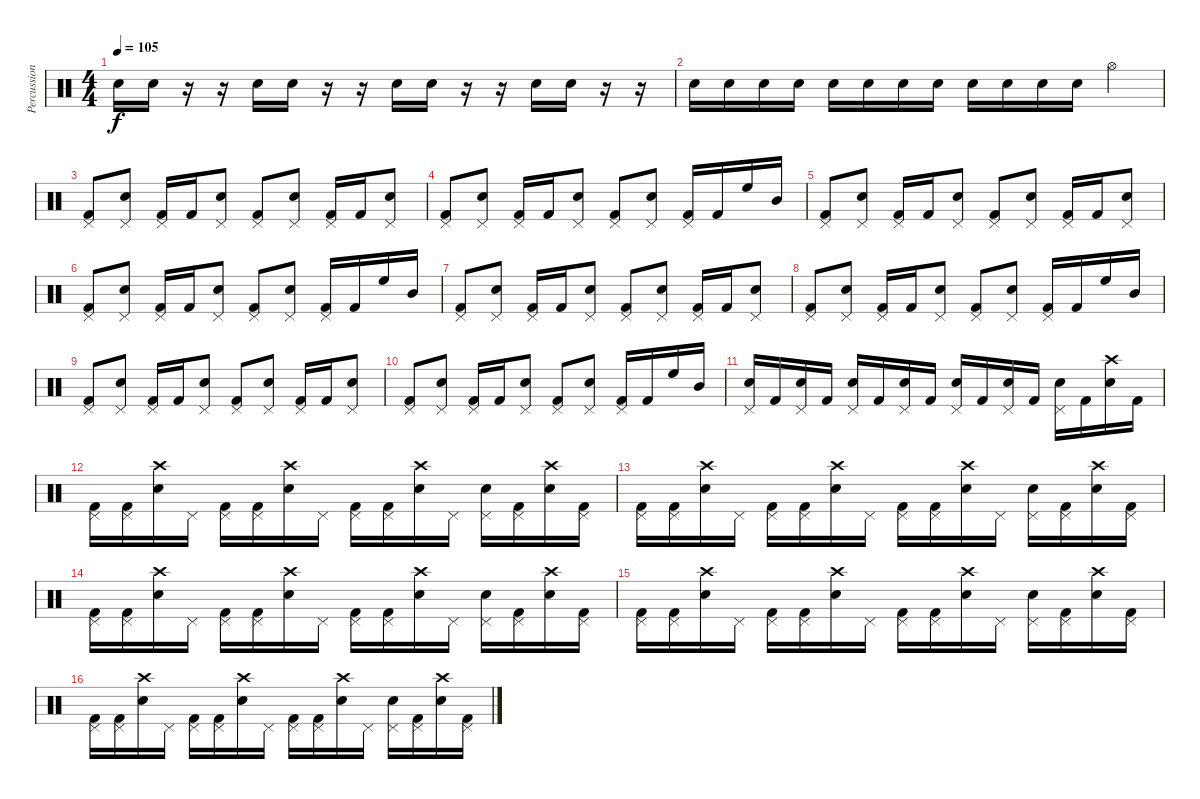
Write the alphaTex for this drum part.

\track ("Percussion" "Percussion") {instrument percussion}
\staff {score}
\articulation defaults
\ts (4 4)
\tempo 105
\clef neutral
\ks c "Electric Snare (hit)".16{dy f} "Electric Snare (hit)".16
r.16 r.16 "Electric Snare (hit)".16 "Electric Snare (hit)".16 r.16 r.16 "Electric Snare (hit)".16 "Electric Snare (hit)".16 r.16 r.16 "Electric Snare (hit)".16 "Electric Snare (hit)".16 r.16 r.16 |
"Electric Snare (hit)".16 "Electric Snare (hit)".16 "Electric Snare (hit)".16 "Electric Snare (hit)".16 "Electric Snare (hit)".16 "Electric Snare (hit)".16 "Electric Snare (hit)".16 "Electric Snare (hit)".16 "Electric Snare (hit)".16 "Electric Snare (hit)".16 "Electric Snare (hit)".16 "Electric Snare (hit)".16 "Hi-Hat (open)".4 |
("Pedal Hi-Hat (hit)" "Kick (hit) 2").8 ("Pedal Hi-Hat (hit)" "Electric Snare (hit)").8 ("Pedal Hi-Hat (hit)" "Kick (hit) 2").16 "Kick (hit) 2".16 ("Pedal Hi-Hat (hit)" "Electric Snare (hit)").8 ("Pedal Hi-Hat (hit)" "Kick (hit) 2").8 ("Pedal Hi-Hat (hit)" "Electric Snare (hit)").8 ("Pedal Hi-Hat (hit)" "Kick (hit) 2").16 "Kick (hit) 2".16 ("Pedal Hi-Hat (hit)" "Electric Snare (hit)").8 |
("Pedal Hi-Hat (hit)" "Kick (hit) 2").8 ("Pedal Hi-Hat (hit)" "Electric Snare (hit)").8 ("Pedal Hi-Hat (hit)" "Kick (hit) 2").16 "Kick (hit) 2".16 ("Pedal Hi-Hat (hit)" "Electric Snare (hit)").8 ("Pedal Hi-Hat (hit)" "Kick (hit) 2").8 ("Pedal Hi-Hat (hit)" "Electric Snare (hit)").8 ("Pedal Hi-Hat (hit)" "Kick (hit) 2").16 "Kick (hit) 2".16 "High Floor Tom (hit)".16 "Mid Tom (hit)".16 |
("Pedal Hi-Hat (hit)" "Kick (hit) 2").8 ("Pedal Hi-Hat (hit)" "Electric Snare (hit)").8 ("Pedal Hi-Hat (hit)" "Kick (hit) 2").16 "Kick (hit) 2".16 ("Pedal Hi-Hat (hit)" "Electric Snare (hit)").8 ("Pedal Hi-Hat (hit)" "Kick (hit) 2").8 ("Pedal Hi-Hat (hit)" "Electric Snare (hit)").8 ("Pedal Hi-Hat (hit)" "Kick (hit) 2").16 "Kick (hit) 2".16 ("Pedal Hi-Hat (hit)" "Electric Snare (hit)").8 |
("Pedal Hi-Hat (hit)" "Kick (hit) 2").8 ("Pedal Hi-Hat (hit)" "Electric Snare (hit)").8 ("Pedal Hi-Hat (hit)" "Kick (hit) 2").16 "Kick (hit) 2".16 ("Pedal Hi-Hat (hit)" "Electric Snare (hit)").8 ("Pedal Hi-Hat (hit)" "Kick (hit) 2").8 ("Pedal Hi-Hat (hit)" "Electric Snare (hit)").8 ("Pedal Hi-Hat (hit)" "Kick (hit) 2").16 "Kick (hit) 2".16 "High Floor Tom (hit)".16 "Mid Tom (hit)".16 |
("Pedal Hi-Hat (hit)" "Kick (hit) 2").8 ("Pedal Hi-Hat (hit)" "Electric Snare (hit)").8 ("Pedal Hi-Hat (hit)" "Kick (hit) 2").16 "Kick (hit) 2".16 ("Pedal Hi-Hat (hit)" "Electric Snare (hit)").8 ("Pedal Hi-Hat (hit)" "Kick (hit) 2").8 ("Pedal Hi-Hat (hit)" "Electric Snare (hit)").8 ("Pedal Hi-Hat (hit)" "Kick (hit) 2").16 "Kick (hit) 2".16 ("Pedal Hi-Hat (hit)" "Electric Snare (hit)").8 |
("Pedal Hi-Hat (hit)" "Kick (hit) 2").8 ("Pedal Hi-Hat (hit)" "Electric Snare (hit)").8 ("Pedal Hi-Hat (hit)" "Kick (hit) 2").16 "Kick (hit) 2".16 ("Pedal Hi-Hat (hit)" "Electric Snare (hit)").8 ("Pedal Hi-Hat (hit)" "Kick (hit) 2").8 ("Pedal Hi-Hat (hit)" "Electric Snare (hit)").8 ("Pedal Hi-Hat (hit)" "Kick (hit) 2").16 "Kick (hit) 2".16 "High Floor Tom (hit)".16 "Mid Tom (hit)".16 |
("Pedal Hi-Hat (hit)" "Kick (hit) 2").8 ("Pedal Hi-Hat (hit)" "Electric Snare (hit)").8 ("Pedal Hi-Hat (hit)" "Kick (hit) 2").16 "Kick (hit) 2".16 ("Pedal Hi-Hat (hit)" "Electric Snare (hit)").8 ("Pedal Hi-Hat (hit)" "Kick (hit) 2").8 ("Pedal Hi-Hat (hit)" "Electric Snare (hit)").8 ("Pedal Hi-Hat (hit)" "Kick (hit) 2").16 "Kick (hit) 2".16 ("Pedal Hi-Hat (hit)" "Electric Snare (hit)").8 |
("Pedal Hi-Hat (hit)" "Kick (hit) 2").8 ("Pedal Hi-Hat (hit)" "Electric Snare (hit)").8 ("Pedal Hi-Hat (hit)" "Kick (hit) 2").16 "Kick (hit) 2".16 ("Pedal Hi-Hat (hit)" "Electric Snare (hit)").8 ("Pedal Hi-Hat (hit)" "Kick (hit) 2").8 ("Pedal Hi-Hat (hit)" "Electric Snare (hit)").8 ("Pedal Hi-Hat (hit)" "Kick (hit) 2").16 "Kick (hit) 2".16 "High Floor Tom (hit)".16 "Mid Tom (hit)".16 |
("Pedal Hi-Hat (hit)" "Electric Snare (hit)").16 "Kick (hit) 2".16 ("Pedal Hi-Hat (hit)" "Electric Snare (hit)").16 "Kick (hit) 2".16 ("Pedal Hi-Hat (hit)" "Electric Snare (hit)").16 "Kick (hit) 2".16 ("Pedal Hi-Hat (hit)" "Electric Snare (hit)").16 "Kick (hit) 2".16 ("Pedal Hi-Hat (hit)" "Electric Snare (hit)").16 "Kick (hit) 2".16 ("Pedal Hi-Hat (hit)" "Electric Snare (hit)").16 "Kick (hit) 2".16 ("Pedal Hi-Hat (hit)" "Electric Snare (hit)").16 "Kick (hit) 2".16 ("Crash high (hit)" "Electric Snare (hit)").16 "Kick (hit) 2".16 |
("Pedal Hi-Hat (hit)" "Kick (hit) 2").16 ("Pedal Hi-Hat (hit)" "Kick (hit) 2").16 ("Crash high (hit)" "Electric Snare (hit)").16 "Pedal Hi-Hat (hit)".16 ("Pedal Hi-Hat (hit)" "Kick (hit) 2").16 ("Pedal Hi-Hat (hit)" "Kick (hit) 2").16 ("Crash high (hit)" "Electric Snare (hit)").16 "Pedal Hi-Hat (hit)".16 ("Pedal Hi-Hat (hit)" "Kick (hit) 2").16 ("Pedal Hi-Hat (hit)" "Kick (hit) 2").16 ("Crash high (hit)" "Electric Snare (hit)").16 "Pedal Hi-Hat (hit)".16 ("Pedal Hi-Hat (hit)" "Electric Snare (hit)").16 ("Pedal Hi-Hat (hit)" "Kick (hit) 2").16 ("Crash high (hit)" "Electric Snare (hit)").16 ("Pedal Hi-Hat (hit)" "Kick (hit) 2").16 |
("Pedal Hi-Hat (hit)" "Kick (hit) 2").16 ("Pedal Hi-Hat (hit)" "Kick (hit) 2").16 ("Crash high (hit)" "Electric Snare (hit)").16 "Pedal Hi-Hat (hit)".16 ("Pedal Hi-Hat (hit)" "Kick (hit) 2").16 ("Pedal Hi-Hat (hit)" "Kick (hit) 2").16 ("Crash high (hit)" "Electric Snare (hit)").16 "Pedal Hi-Hat (hit)".16 ("Pedal Hi-Hat (hit)" "Kick (hit) 2").16 ("Pedal Hi-Hat (hit)" "Kick (hit) 2").16 ("Crash high (hit)" "Electric Snare (hit)").16 "Pedal Hi-Hat (hit)".16 ("Pedal Hi-Hat (hit)" "Electric Snare (hit)").16 ("Pedal Hi-Hat (hit)" "Kick (hit) 2").16 ("Crash high (hit)" "Electric Snare (hit)").16 ("Pedal Hi-Hat (hit)" "Kick (hit) 2").16 |
("Pedal Hi-Hat (hit)" "Kick (hit) 2").16 ("Pedal Hi-Hat (hit)" "Kick (hit) 2").16 ("Crash high (hit)" "Electric Snare (hit)").16 "Pedal Hi-Hat (hit)".16 ("Pedal Hi-Hat (hit)" "Kick (hit) 2").16 ("Pedal Hi-Hat (hit)" "Kick (hit) 2").16 ("Crash high (hit)" "Electric Snare (hit)").16 "Pedal Hi-Hat (hit)".16 ("Pedal Hi-Hat (hit)" "Kick (hit) 2").16 ("Pedal Hi-Hat (hit)" "Kick (hit) 2").16 ("Crash high (hit)" "Electric Snare (hit)").16 "Pedal Hi-Hat (hit)".16 ("Pedal Hi-Hat (hit)" "Electric Snare (hit)").16 ("Pedal Hi-Hat (hit)" "Kick (hit) 2").16 ("Crash high (hit)" "Electric Snare (hit)").16 ("Pedal Hi-Hat (hit)" "Kick (hit) 2").16 |
("Pedal Hi-Hat (hit)" "Kick (hit) 2").16 ("Pedal Hi-Hat (hit)" "Kick (hit) 2").16 ("Crash high (hit)" "Electric Snare (hit)").16 "Pedal Hi-Hat (hit)".16 ("Pedal Hi-Hat (hit)" "Kick (hit) 2").16 ("Pedal Hi-Hat (hit)" "Kick (hit) 2").16 ("Crash high (hit)" "Electric Snare (hit)").16 "Pedal Hi-Hat (hit)".16 ("Pedal Hi-Hat (hit)" "Kick (hit) 2").16 ("Pedal Hi-Hat (hit)" "Kick (hit) 2").16 ("Crash high (hit)" "Electric Snare (hit)").16 "Pedal Hi-Hat (hit)".16 ("Pedal Hi-Hat (hit)" "Electric Snare (hit)").16 ("Pedal Hi-Hat (hit)" "Kick (hit) 2").16 ("Crash high (hit)" "Electric Snare (hit)").16 ("Pedal Hi-Hat (hit)" "Kick (hit) 2").16 |
("Pedal Hi-Hat (hit)" "Kick (hit) 2").16 ("Pedal Hi-Hat (hit)" "Kick (hit) 2").16 ("Crash high (hit)" "Electric Snare (hit)").16 "Pedal Hi-Hat (hit)".16 ("Pedal Hi-Hat (hit)" "Kick (hit) 2").16 ("Pedal Hi-Hat (hit)" "Kick (hit) 2").16 ("Crash high (hit)" "Electric Snare (hit)").16 "Pedal Hi-Hat (hit)".16 ("Pedal Hi-Hat (hit)" "Kick (hit) 2").16 ("Pedal Hi-Hat (hit)" "Kick (hit) 2").16 ("Crash high (hit)" "Electric Snare (hit)").16 "Pedal Hi-Hat (hit)".16 ("Pedal Hi-Hat (hit)" "Electric Snare (hit)").16 ("Pedal Hi-Hat (hit)" "Kick (hit) 2").16 ("Crash high (hit)" "Electric Snare (hit)").16 ("Pedal Hi-Hat (hit)" "Kick (hit) 2").16
